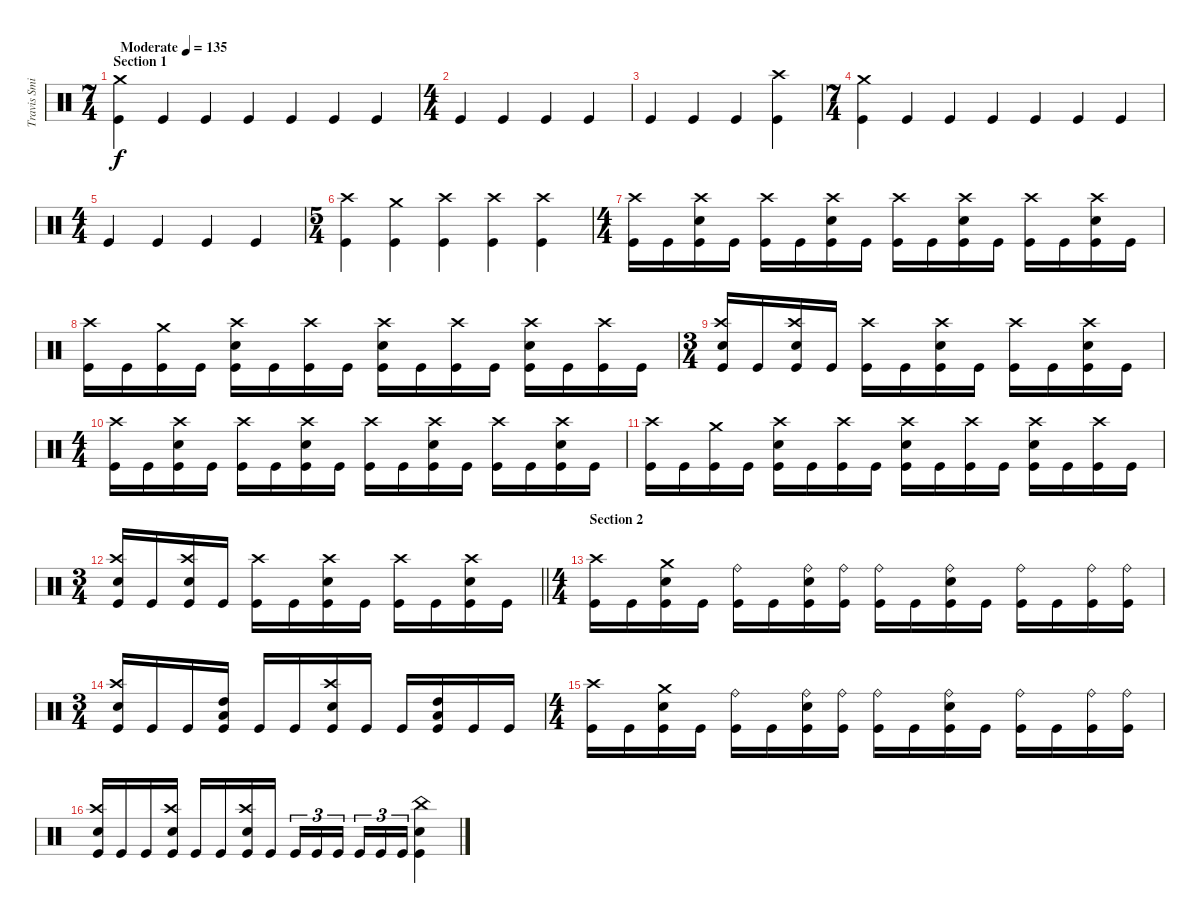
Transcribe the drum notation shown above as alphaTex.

\track ("Travis Smith" "Travis Smi") {instrument percussion}
\staff {score}
\articulation defaults
\ts (7 4)
\section ("" "Section 1")
\tempo (135 "Moderate")
\clef neutral
\ks c
("Crash medium (hit)" "Kick (hit)").4{dy f} "Kick (hit)".4 "Kick (hit)".4 "Kick (hit)".4 "Kick (hit)".4 "Kick (hit)".4 "Kick (hit)".4 |
\ts (4 4)
"Kick (hit)".4 "Kick (hit)".4 "Kick (hit)".4 "Kick (hit)".4 |
"Kick (hit)".4 "Kick (hit)".4 "Kick (hit)".4 ("Crash high (hit)" "Kick (hit)").4 |
\ts (7 4)
("Crash medium (hit)" "Kick (hit)").4 "Kick (hit)".4 "Kick (hit)".4 "Kick (hit)".4 "Kick (hit)".4 "Kick (hit)".4 "Kick (hit)".4 |
\ts (4 4)
"Kick (hit)".4 "Kick (hit)".4 "Kick (hit)".4 "Kick (hit)".4 |
\ts (5 4)
("Crash high (hit)" "Kick (hit)").4 ("Crash medium (hit)" "Kick (hit)").4 ("Crash high (hit)" "Kick (hit)").4 ("Crash high (hit)" "Kick (hit)").4 ("Crash high (hit)" "Kick (hit)").4 |
\ts (4 4)
("Crash high (hit)" "Kick (hit)").16 "Kick (hit)".16 ("Crash high (hit)" "Electric Snare (hit)" "Kick (hit)").16 "Kick (hit)".16 ("Crash high (hit)" "Kick (hit)").16 "Kick (hit)".16 ("Crash high (hit)" "Electric Snare (hit)" "Kick (hit)").16 "Kick (hit)".16 ("Crash high (hit)" "Kick (hit)").16 "Kick (hit)".16 ("Crash high (hit)" "Electric Snare (hit)" "Kick (hit)").16 "Kick (hit)".16 ("Crash high (hit)" "Kick (hit)").16 "Kick (hit)".16 ("Crash high (hit)" "Electric Snare (hit)" "Kick (hit)").16 "Kick (hit)".16 |
("Crash high (hit)" "Kick (hit)").16 "Kick (hit)".16 ("Crash medium (hit)" "Kick (hit)").16 "Kick (hit)".16 ("Crash high (hit)" "Electric Snare (hit)" "Kick (hit)").16 "Kick (hit)".16 ("Crash high (hit)" "Kick (hit)").16 "Kick (hit)".16 ("Crash high (hit)" "Electric Snare (hit)" "Kick (hit)").16 "Kick (hit)".16 ("Crash high (hit)" "Kick (hit)").16 "Kick (hit)".16 ("Crash high (hit)" "Electric Snare (hit)" "Kick (hit)").16 "Kick (hit)".16 ("Crash high (hit)" "Kick (hit)").16 "Kick (hit)".16 |
\ts (3 4)
("Crash high (hit)" "Electric Snare (hit)" "Kick (hit)").16 "Kick (hit)".16 ("Crash high (hit)" "Electric Snare (hit)" "Kick (hit)").16 "Kick (hit)".16 ("Crash high (hit)" "Kick (hit)").16 "Kick (hit)".16 ("Crash high (hit)" "Electric Snare (hit)" "Kick (hit)").16 "Kick (hit)".16 ("Crash high (hit)" "Kick (hit)").16 "Kick (hit)".16 ("Crash high (hit)" "Electric Snare (hit)" "Kick (hit)").16 "Kick (hit)".16 |
\ts (4 4)
("Crash high (hit)" "Kick (hit)").16 "Kick (hit)".16 ("Crash high (hit)" "Electric Snare (hit)" "Kick (hit)").16 "Kick (hit)".16 ("Crash high (hit)" "Kick (hit)").16 "Kick (hit)".16 ("Crash high (hit)" "Electric Snare (hit)" "Kick (hit)").16 "Kick (hit)".16 ("Crash high (hit)" "Kick (hit)").16 "Kick (hit)".16 ("Crash high (hit)" "Electric Snare (hit)" "Kick (hit)").16 "Kick (hit)".16 ("Crash high (hit)" "Kick (hit)").16 "Kick (hit)".16 ("Crash high (hit)" "Electric Snare (hit)" "Kick (hit)").16 "Kick (hit)".16 |
("Crash high (hit)" "Kick (hit)").16 "Kick (hit)".16 ("Crash medium (hit)" "Kick (hit)").16 "Kick (hit)".16 ("Crash high (hit)" "Electric Snare (hit)" "Kick (hit)").16 "Kick (hit)".16 ("Crash high (hit)" "Kick (hit)").16 "Kick (hit)".16 ("Crash high (hit)" "Electric Snare (hit)" "Kick (hit)").16 "Kick (hit)".16 ("Crash high (hit)" "Kick (hit)").16 "Kick (hit)".16 ("Crash high (hit)" "Electric Snare (hit)" "Kick (hit)").16 "Kick (hit)".16 ("Crash high (hit)" "Kick (hit)").16 "Kick (hit)".16 |
\ts (3 4)
\barLineRight lightlight
("Crash high (hit)" "Electric Snare (hit)" "Kick (hit)").16 "Kick (hit)".16 ("Crash high (hit)" "Electric Snare (hit)" "Kick (hit)").16 "Kick (hit)".16 ("Crash high (hit)" "Kick (hit)").16 "Kick (hit)".16 ("Crash high (hit)" "Electric Snare (hit)" "Kick (hit)").16 "Kick (hit)".16 ("Crash high (hit)" "Kick (hit)").16 "Kick (hit)".16 ("Crash high (hit)" "Electric Snare (hit)" "Kick (hit)").16 "Kick (hit)".16 |
\ts (4 4)
\section ("" "Section 2")
("Crash high (hit)" "Kick (hit)").16 "Kick (hit)".16 ("Crash medium (hit)" "Electric Snare (hit)" "Kick (hit)").16 "Kick (hit)".16 ("Ride (bell)" "Kick (hit)").16 "Kick (hit)".16 ("Ride (bell)" "Electric Snare (hit)" "Kick (hit)").16 ("Ride (bell)" "Kick (hit)").16 ("Ride (bell)" "Kick (hit)").16 "Kick (hit)".16 ("Ride (bell)" "Electric Snare (hit)" "Kick (hit)").16 "Kick (hit)".16 ("Ride (bell)" "Kick (hit)").16 "Kick (hit)".16 ("Ride (bell)" "Kick (hit)").16 ("Ride (bell)" "Kick (hit)").16 |
\ts (3 4)
("Crash high (hit)" "Electric Snare (hit)" "Kick (hit)").16 "Kick (hit)".16 "Kick (hit)".16 ("High Tom (hit)" "Low Tom (hit)" "Kick (hit)").16 "Kick (hit)".16 "Kick (hit)".16 ("Crash high (hit)" "Electric Snare (hit)" "Kick (hit)").16 "Kick (hit)".16 "Kick (hit)".16 ("High Tom (hit)" "Low Tom (hit)" "Kick (hit)").16 "Kick (hit)".16 "Kick (hit)".16 |
\ts (4 4)
("Crash high (hit)" "Kick (hit)").16 "Kick (hit)".16 ("Crash medium (hit)" "Electric Snare (hit)" "Kick (hit)").16 "Kick (hit)".16 ("Ride (bell)" "Kick (hit)").16 "Kick (hit)".16 ("Ride (bell)" "Electric Snare (hit)" "Kick (hit)").16 ("Ride (bell)" "Kick (hit)").16 ("Ride (bell)" "Kick (hit)").16 "Kick (hit)".16 ("Ride (bell)" "Electric Snare (hit)" "Kick (hit)").16 "Kick (hit)".16 ("Ride (bell)" "Kick (hit)").16 "Kick (hit)".16 ("Ride (bell)" "Kick (hit)").16 ("Ride (bell)" "Kick (hit)").16 |
("Crash high (hit)" "Electric Snare (hit)" "Kick (hit)").16 "Kick (hit)".16 "Kick (hit)".16 ("Crash high (hit)" "Electric Snare (hit)" "Kick (hit)").16 "Kick (hit)".16 "Kick (hit)".16 ("Crash high (hit)" "Electric Snare (hit)" "Kick (hit)").16 "Kick (hit)".16 "Kick (hit)".16{tu (3 2)} "Kick (hit)".16{tu (3 2)} "Kick (hit)".16{tu (3 2) beam splitsecondary} "Kick (hit)".16{tu (3 2)} "Kick (hit)".16{tu (3 2)} "Kick (hit)".16{tu (3 2)} ("China (hit)" "Electric Snare (hit)" "Kick (hit)").4
